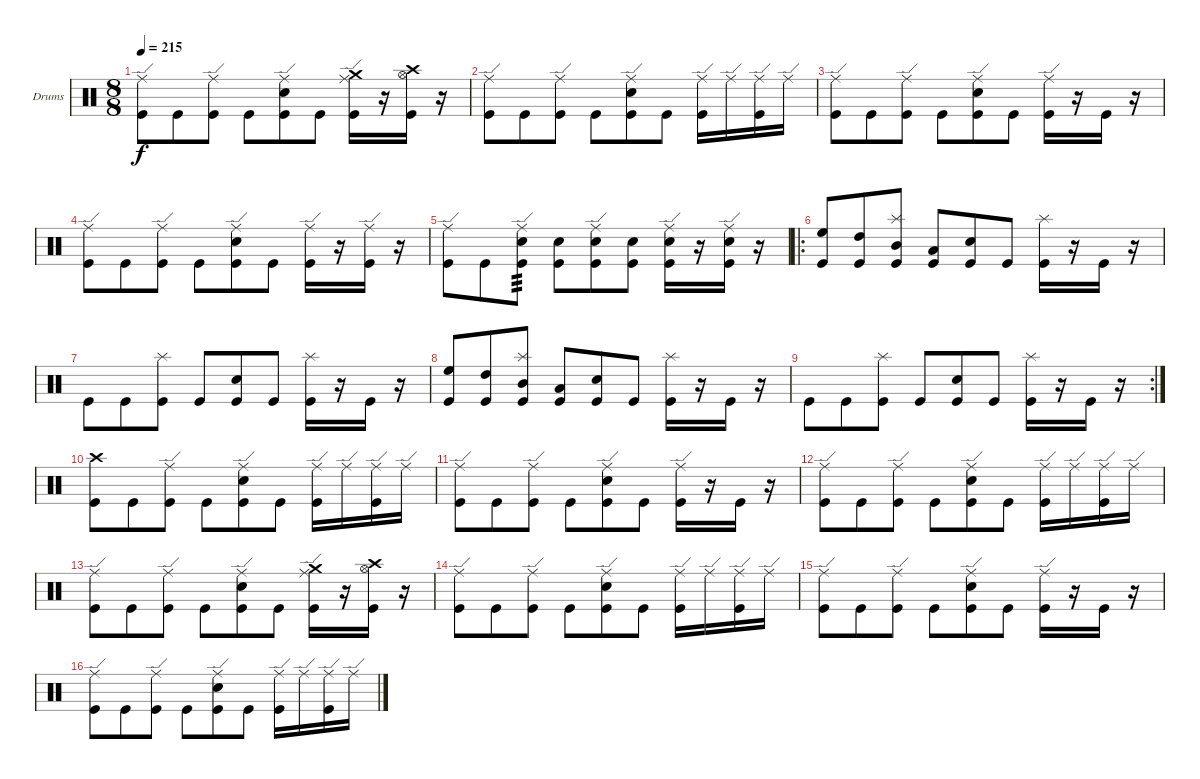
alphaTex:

\bracketExtendMode groupsimilarinstruments
\firstSystemTrackNameOrientation horizontal
\otherSystemsTrackNameOrientation horizontal
\track ("Dave McClain" "Drums") {instrument percussion}
\staff {score}
\articulation defaults
\ts (8 8)
\tempo 215
\clef neutral
\ks c
("Ride (edge)" "Kick (hit)").8{dy f} "Kick (hit)".8 ("Ride (edge)" "Kick (hit)").8 "Kick (hit)".8 ("Ride (edge)" "Snare (hit) 2" "Kick (hit)").8 "Kick (hit)".8 ("Crash medium (hit)" "Ride (edge)" "Kick (hit)").16 r.16 ("Crash high (hit)" "Hi-Hat (open)" "Kick (hit)").16 r.16 |
("Ride (edge)" "Kick (hit)").8 "Kick (hit)".8 ("Ride (edge)" "Kick (hit)").8 "Kick (hit)".8 ("Ride (edge)" "Snare (hit) 2" "Kick (hit)").8 "Kick (hit)".8 ("Ride (edge)" "Kick (hit)").16 "Ride (edge)".16 ("Ride (edge)" "Kick (hit)").16 "Ride (edge)".16 |
("Ride (edge)" "Kick (hit)").8 "Kick (hit)".8 ("Ride (edge)" "Kick (hit)").8 "Kick (hit)".8 ("Ride (edge)" "Snare (hit) 2" "Kick (hit)").8 "Kick (hit)".8 ("Ride (edge)" "Kick (hit)").16 r.16 "Kick (hit)".16 r.16 |
("Ride (edge)" "Kick (hit)").8 "Kick (hit)".8 ("Ride (edge)" "Kick (hit)").8 "Kick (hit)".8 ("Ride (edge)" "Snare (hit) 2" "Kick (hit)").8 "Kick (hit)".8 ("Ride (edge)" "Kick (hit)").16 r.16 ("Ride (edge)" "Kick (hit)").16 r.16 |
("Ride (edge)" "Kick (hit)").8 "Kick (hit)".8 ("Ride (edge)" "Snare (hit) 2" "Kick (hit)").8{tp 3} ("Snare (hit) 2" "Kick (hit)").8 ("Ride (edge)" "Snare (hit) 2" "Kick (hit)").8 ("Snare (hit) 2" "Kick (hit)").8 ("Ride (edge)" "Snare (hit) 2" "Kick (hit)").16 r.16 ("Ride (edge)" "Snare (hit) 2" "Kick (hit)").16 r.16 |
\ro
("High Floor Tom (hit)" "Kick (hit)").8 ("High Tom (hit)" "Kick (hit)").8 ("Splash (hit)" "Mid Tom (hit)" "Kick (hit)").8 ("Low Tom (hit)" "Kick (hit)").8 ("Snare (hit) 2" "Kick (hit)").8 "Kick (hit)".8 ("Splash (hit)" "Kick (hit)").16 r.16 "Kick (hit)".16 r.16 |
"Kick (hit)".8 "Kick (hit)".8 ("Splash (hit)" "Kick (hit)").8 "Kick (hit)".8 ("Snare (hit) 2" "Kick (hit)").8 "Kick (hit)".8 ("Splash (hit)" "Kick (hit)").16 r.16 "Kick (hit)".16 r.16 |
("High Floor Tom (hit)" "Kick (hit)").8 ("High Tom (hit)" "Kick (hit)").8 ("Splash (hit)" "Mid Tom (hit)" "Kick (hit)").8 ("Low Tom (hit)" "Kick (hit)").8 ("Snare (hit) 2" "Kick (hit)").8 "Kick (hit)".8 ("Splash (hit)" "Kick (hit)").16 r.16 "Kick (hit)".16 r.16 |
\rc 2 "Kick (hit)".8 "Kick (hit)".8
("Splash (hit)" "Kick (hit)").8 "Kick (hit)".8 ("Snare (hit) 2" "Kick (hit)").8 "Kick (hit)".8 ("Splash (hit)" "Kick (hit)").16 r.16 "Kick (hit)".16 r.16 |
("Crash high (hit)" "Kick (hit)").8 "Kick (hit)".8 ("Ride (edge)" "Kick (hit)").8 "Kick (hit)".8 ("Ride (edge)" "Snare (hit) 2" "Kick (hit)").8 "Kick (hit)".8 ("Ride (edge)" "Kick (hit)").16 "Ride (edge)".16 ("Ride (edge)" "Kick (hit)").16 "Ride (edge)".16 |
("Ride (edge)" "Kick (hit)").8 "Kick (hit)".8 ("Ride (edge)" "Kick (hit)").8 "Kick (hit)".8 ("Ride (edge)" "Snare (hit) 2" "Kick (hit)").8 "Kick (hit)".8 ("Ride (edge)" "Kick (hit)").16 r.16 "Kick (hit)".16 r.16 |
("Ride (edge)" "Kick (hit)").8 "Kick (hit)".8 ("Ride (edge)" "Kick (hit)").8 "Kick (hit)".8 ("Ride (edge)" "Snare (hit) 2" "Kick (hit)").8 "Kick (hit)".8 ("Ride (edge)" "Kick (hit)").16 "Ride (edge)".16 ("Ride (edge)" "Kick (hit)").16 "Ride (edge)".16 |
("Ride (edge)" "Kick (hit)").8 "Kick (hit)".8 ("Ride (edge)" "Kick (hit)").8 "Kick (hit)".8 ("Ride (edge)" "Snare (hit) 2" "Kick (hit)").8 "Kick (hit)".8 ("Crash medium (hit)" "Ride (edge)" "Kick (hit)").16 r.16 ("Crash high (hit)" "Hi-Hat (open)" "Kick (hit)").16 r.16 |
("Ride (edge)" "Kick (hit)").8 "Kick (hit)".8 ("Ride (edge)" "Kick (hit)").8 "Kick (hit)".8 ("Ride (edge)" "Snare (hit) 2" "Kick (hit)").8 "Kick (hit)".8 ("Ride (edge)" "Kick (hit)").16 "Ride (edge)".16 ("Ride (edge)" "Kick (hit)").16 "Ride (edge)".16 |
("Ride (edge)" "Kick (hit)").8 "Kick (hit)".8 ("Ride (edge)" "Kick (hit)").8 "Kick (hit)".8 ("Ride (edge)" "Snare (hit) 2" "Kick (hit)").8 "Kick (hit)".8 ("Ride (edge)" "Kick (hit)").16 r.16 "Kick (hit)".16 r.16 |
("Ride (edge)" "Kick (hit)").8 "Kick (hit)".8 ("Ride (edge)" "Kick (hit)").8 "Kick (hit)".8 ("Ride (edge)" "Snare (hit) 2" "Kick (hit)").8 "Kick (hit)".8 ("Ride (edge)" "Kick (hit)").16 "Ride (edge)".16 ("Ride (edge)" "Kick (hit)").16 "Ride (edge)".16
